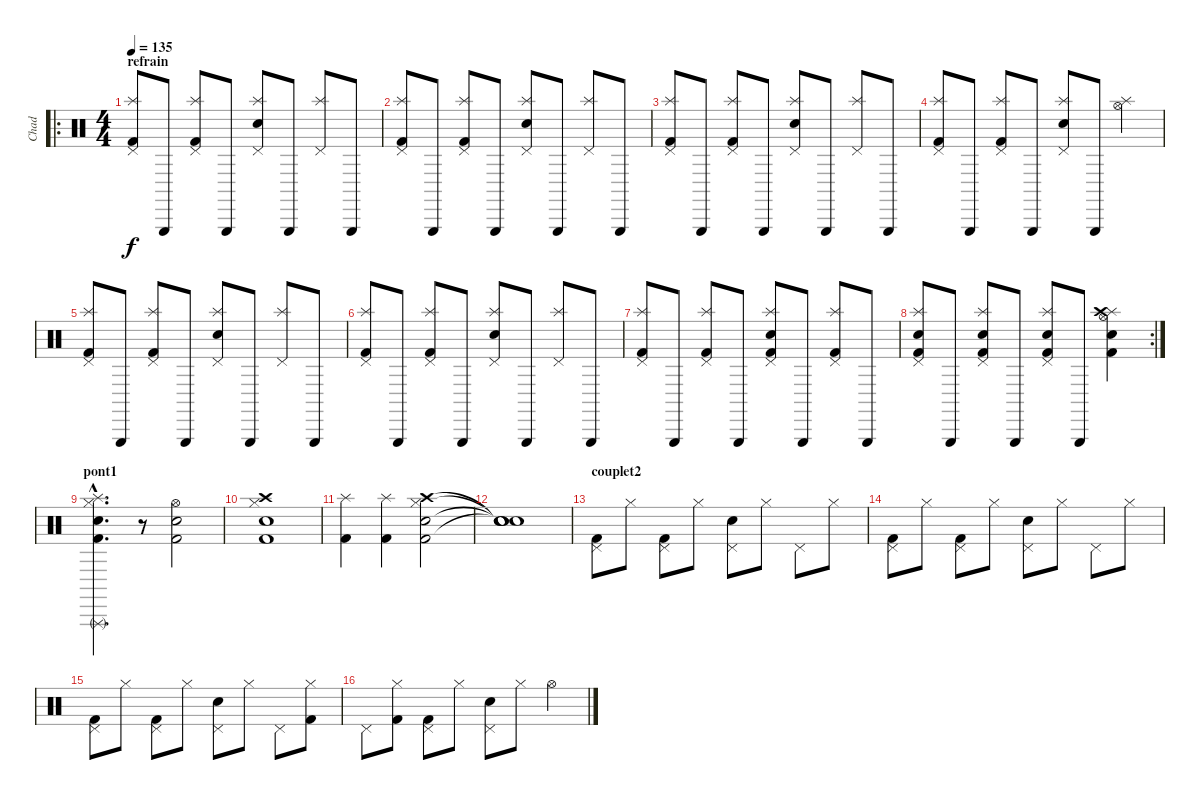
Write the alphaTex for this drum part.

\track ("Chad" "Chad") {instrument percussion}
\staff {score}
\articulation defaults
\ro
\ts (4 4)
\section ("" "refrain")
\tempo 135
\clef neutral
\ks c
("Splash (hit)" "Pedal Hi-Hat (hit)" "Kick (hit) 2").8{dy f} "Triangle (hit)".8 ("Splash (hit)" "Pedal Hi-Hat (hit)" "Kick (hit) 2").8 "Triangle (hit)".8 ("Splash (hit)" "Pedal Hi-Hat (hit)" "Electric Snare (hit)").8 "Triangle (hit)".8 ("Splash (hit)" "Pedal Hi-Hat (hit)").8 "Triangle (hit)".8 |
("Splash (hit)" "Pedal Hi-Hat (hit)" "Kick (hit) 2").8 "Triangle (hit)".8 ("Splash (hit)" "Pedal Hi-Hat (hit)" "Kick (hit) 2").8 "Triangle (hit)".8 ("Splash (hit)" "Pedal Hi-Hat (hit)" "Electric Snare (hit)").8 "Triangle (hit)".8 ("Splash (hit)" "Pedal Hi-Hat (hit)").8 "Triangle (hit)".8 |
("Splash (hit)" "Pedal Hi-Hat (hit)" "Kick (hit) 2").8 "Triangle (hit)".8 ("Splash (hit)" "Pedal Hi-Hat (hit)" "Kick (hit) 2").8 "Triangle (hit)".8 ("Splash (hit)" "Pedal Hi-Hat (hit)" "Electric Snare (hit)").8 "Triangle (hit)".8 ("Splash (hit)" "Pedal Hi-Hat (hit)").8 "Triangle (hit)".8 |
("Splash (hit)" "Pedal Hi-Hat (hit)" "Kick (hit) 2").8 "Triangle (hit)".8 ("Splash (hit)" "Pedal Hi-Hat (hit)" "Kick (hit) 2").8 "Triangle (hit)".8 ("Splash (hit)" "Pedal Hi-Hat (hit)" "Electric Snare (hit)").8 "Triangle (hit)".8 ("Splash (hit)" "Hi-Hat (open)").4 |
("Splash (hit)" "Pedal Hi-Hat (hit)" "Kick (hit) 2").8 "Triangle (hit)".8 ("Splash (hit)" "Pedal Hi-Hat (hit)" "Kick (hit) 2").8 "Triangle (hit)".8 ("Splash (hit)" "Pedal Hi-Hat (hit)" "Electric Snare (hit)").8 "Triangle (hit)".8 ("Splash (hit)" "Pedal Hi-Hat (hit)").8 "Triangle (hit)".8 |
("Splash (hit)" "Pedal Hi-Hat (hit)" "Kick (hit) 2").8 "Triangle (hit)".8 ("Splash (hit)" "Pedal Hi-Hat (hit)" "Kick (hit) 2").8 "Triangle (hit)".8 ("Splash (hit)" "Pedal Hi-Hat (hit)" "Electric Snare (hit)").8 "Triangle (hit)".8 ("Splash (hit)" "Pedal Hi-Hat (hit)").8 "Triangle (hit)".8 |
("Splash (hit)" "Pedal Hi-Hat (hit)" "Kick (hit) 2").8 "Triangle (hit)".8 ("Splash (hit)" "Pedal Hi-Hat (hit)" "Kick (hit) 2").8 "Triangle (hit)".8 ("Splash (hit)" "Pedal Hi-Hat (hit)" "Electric Snare (hit)" "Kick (hit) 2").8 "Triangle (hit)".8 ("Splash (hit)" "Pedal Hi-Hat (hit)" "Kick (hit) 2").8 "Triangle (hit)".8 |
\rc 2
("Splash (hit)" "Pedal Hi-Hat (hit)" "Electric Snare (hit)" "Kick (hit) 2").8 "Triangle (hit)".8 ("Splash (hit)" "Pedal Hi-Hat (hit)" "Electric Snare (hit)" "Kick (hit) 2").8 "Triangle (hit)".8 ("Splash (hit)" "Pedal Hi-Hat (hit)" "Electric Snare (hit)" "Kick (hit) 2").8 "Triangle (hit)".8 ("Splash (hit)" "Hi-Hat (open)" "Crash high (hit)" "Electric Snare (hit)" "Kick (hit) 2").4 |
\section ("" "pont1")
("Triangle (rnute)"{hac} "Splash (hit)"{hac} "Snare (hit) 2"{hac} "Hi-Hat (closed)"{hac} "Kick (hit) 2"{hac}).4{d} r.8 ("Hi-Hat (open)" "Electric Snare (hit)" "Kick (hit) 2").2 |
("Crash high (hit)" "Hi-Hat (closed)" "Electric Snare (hit)" "Kick (hit) 2").1 |
("Splash (hit)" "Kick (hit) 2").4 ("Splash (hit)" "Kick (hit) 2").4 ("Crash high (hit)" "Hi-Hat (closed)" "Electric Snare (hit)" "Kick (hit) 2").2 |
("Snare (hit)"{t} "Snare (hit)"{t} "Snare (hit)"{t} "Snare (hit)"{t}).1 |
\section ("" "couplet2")
("Pedal Hi-Hat (hit)" "Kick (hit) 2").8 "Hi-Hat (closed)".8 ("Pedal Hi-Hat (hit)" "Kick (hit) 2").8 "Hi-Hat (closed)".8 ("Pedal Hi-Hat (hit)" "Electric Snare (hit)").8 "Hi-Hat (closed)".8 "Pedal Hi-Hat (hit)".8 "Hi-Hat (closed)".8 |
("Pedal Hi-Hat (hit)" "Kick (hit) 2").8 "Hi-Hat (closed)".8 ("Pedal Hi-Hat (hit)" "Kick (hit) 2").8 "Hi-Hat (closed)".8 ("Pedal Hi-Hat (hit)" "Electric Snare (hit)").8 "Hi-Hat (closed)".8 "Pedal Hi-Hat (hit)".8 "Hi-Hat (closed)".8 |
("Pedal Hi-Hat (hit)" "Kick (hit) 2").8 "Hi-Hat (closed)".8 ("Pedal Hi-Hat (hit)" "Kick (hit) 2").8 "Hi-Hat (closed)".8 ("Pedal Hi-Hat (hit)" "Electric Snare (hit)").8 "Hi-Hat (closed)".8 "Pedal Hi-Hat (hit)".8 ("Hi-Hat (closed)" "Kick (hit) 2").8 |
"Pedal Hi-Hat (hit)".8 ("Hi-Hat (closed)" "Kick (hit) 2").8 ("Pedal Hi-Hat (hit)" "Kick (hit) 2").8 "Hi-Hat (closed)".8 ("Pedal Hi-Hat (hit)" "Electric Snare (hit)").8 "Hi-Hat (closed)".8 "Hi-Hat (open)".4
